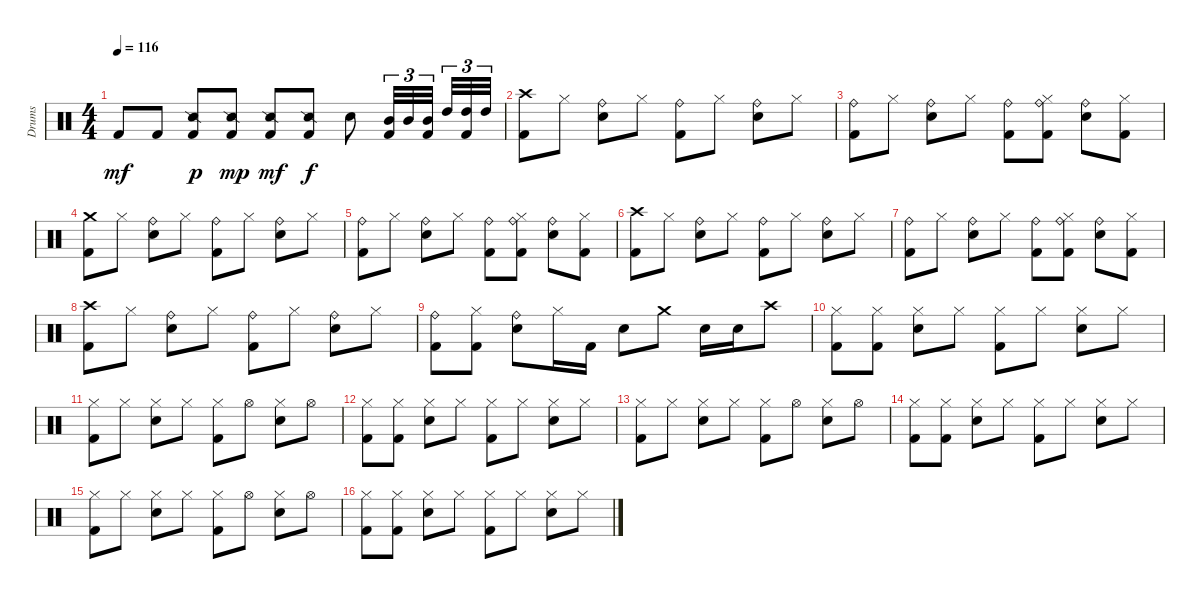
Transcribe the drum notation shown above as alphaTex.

\track ("Drums" "Drums") {instrument percussion}
\staff {score}
\articulation defaults
\ts (4 4)
\tempo 116
\clef neutral
\ks c "Kick (hit) 2".8{dy mf} "Kick (hit) 2".8
("Kick (hit) 2" "Snare (side stick) 2").8{dy p} ("Kick (hit) 2" "Snare (side stick) 2").8{dy mp} ("Kick (hit) 2" "Snare (side stick) 2").8{dy mf} ("Kick (hit) 2" "Snare (side stick) 2").8{dy f} "Snare (hit) 2".8 ("Kick (hit) 2" "Mid Tom (hit)").32{tu (3 2)} "Mid Tom (hit)".32{tu (3 2)} ("Kick (hit) 2" "Mid Tom (hit)").32{tu (3 2)} "High Tom (hit)".32{tu (3 2)} ("Kick (hit) 2" "High Tom (hit)").32{tu (3 2)} "High Tom (hit)".32{tu (3 2)} |
("Kick (hit) 2" "Crash high (hit)").8 "Hi-Hat (closed)".8 ("Snare (hit) 2" "Ride (bell)").8 "Hi-Hat (closed)".8 ("Kick (hit) 2" "Ride (bell)").8 "Hi-Hat (closed)".8 ("Snare (hit) 2" "Ride (bell)").8 "Hi-Hat (closed)".8 |
("Kick (hit) 2" "Ride (bell)").8 "Hi-Hat (closed)".8 ("Snare (hit) 2" "Ride (bell)").8 "Hi-Hat (closed)".8 ("Kick (hit) 2" "Ride (bell)").8 ("Kick (hit) 2" "Hi-Hat (closed)" "Ride (bell)").8 ("Snare (hit) 2" "Ride (bell)").8 ("Kick (hit) 2" "Hi-Hat (closed)").8 |
("Kick (hit) 2" "Crash medium (hit)").8 "Hi-Hat (closed)".8 ("Snare (hit) 2" "Ride (bell)").8 "Hi-Hat (closed)".8 ("Kick (hit) 2" "Ride (bell)").8 "Hi-Hat (closed)".8 ("Snare (hit) 2" "Ride (bell)").8 "Hi-Hat (closed)".8 |
("Kick (hit) 2" "Ride (bell)").8 "Hi-Hat (closed)".8 ("Snare (hit) 2" "Ride (bell)").8 "Hi-Hat (closed)".8 ("Kick (hit) 2" "Ride (bell)").8 ("Kick (hit) 2" "Hi-Hat (closed)" "Ride (bell)").8 ("Snare (hit) 2" "Ride (bell)").8 ("Kick (hit) 2" "Hi-Hat (closed)").8 |
("Kick (hit) 2" "Crash high (hit)").8 "Hi-Hat (closed)".8 ("Snare (hit) 2" "Ride (bell)").8 "Hi-Hat (closed)".8 ("Kick (hit) 2" "Ride (bell)").8 "Hi-Hat (closed)".8 ("Snare (hit) 2" "Ride (bell)").8 "Hi-Hat (closed)".8 |
("Kick (hit) 2" "Ride (bell)").8 "Hi-Hat (closed)".8 ("Snare (hit) 2" "Ride (bell)").8 "Hi-Hat (closed)".8 ("Kick (hit) 2" "Ride (bell)").8 ("Kick (hit) 2" "Hi-Hat (closed)" "Ride (bell)").8 ("Snare (hit) 2" "Ride (bell)").8 ("Kick (hit) 2" "Hi-Hat (closed)").8 |
("Kick (hit) 2" "Crash high (hit)").8 "Hi-Hat (closed)".8 ("Snare (hit) 2" "Ride (bell)").8 "Hi-Hat (closed)".8 ("Kick (hit) 2" "Ride (bell)").8 "Hi-Hat (closed)".8 ("Snare (hit) 2" "Ride (bell)").8 "Hi-Hat (closed)".8 |
("Kick (hit) 2" "Ride (bell)").8 ("Kick (hit) 2" "Hi-Hat (closed)").8 ("Snare (hit) 2" "Ride (bell)").8 "Hi-Hat (closed)".16 "Kick (hit) 2".16 "Snare (hit) 2".8 "Crash medium (hit)".8 "Snare (hit) 2".16 "Snare (hit) 2".16 "Crash high (hit)".8 |
("Kick (hit) 2" "Hi-Hat (closed)").8 ("Kick (hit) 2" "Hi-Hat (closed)").8 ("Snare (hit) 2" "Hi-Hat (closed)").8 "Hi-Hat (closed)".8 ("Kick (hit) 2" "Hi-Hat (closed)").8 "Hi-Hat (closed)".8 ("Snare (hit) 2" "Hi-Hat (closed)").8 "Hi-Hat (closed)".8 |
("Kick (hit) 2" "Hi-Hat (closed)").8 "Hi-Hat (closed)".8 ("Snare (hit) 2" "Hi-Hat (closed)").8 "Hi-Hat (closed)".8 ("Kick (hit) 2" "Hi-Hat (closed)").8 "Hi-Hat (open)".8 ("Snare (hit) 2" "Hi-Hat (closed)").8 "Hi-Hat (open)".8 |
("Kick (hit) 2" "Hi-Hat (closed)").8 ("Kick (hit) 2" "Hi-Hat (closed)").8 ("Snare (hit) 2" "Hi-Hat (closed)").8 "Hi-Hat (closed)".8 ("Kick (hit) 2" "Hi-Hat (closed)").8 "Hi-Hat (closed)".8 ("Snare (hit) 2" "Hi-Hat (closed)").8 "Hi-Hat (closed)".8 |
("Kick (hit) 2" "Hi-Hat (closed)").8 "Hi-Hat (closed)".8 ("Snare (hit) 2" "Hi-Hat (closed)").8 "Hi-Hat (closed)".8 ("Kick (hit) 2" "Hi-Hat (closed)").8 "Hi-Hat (open)".8 ("Snare (hit) 2" "Hi-Hat (closed)").8 "Hi-Hat (open)".8 |
("Kick (hit) 2" "Hi-Hat (closed)").8 ("Kick (hit) 2" "Hi-Hat (closed)").8 ("Snare (hit) 2" "Hi-Hat (closed)").8 "Hi-Hat (closed)".8 ("Kick (hit) 2" "Hi-Hat (closed)").8 "Hi-Hat (closed)".8 ("Snare (hit) 2" "Hi-Hat (closed)").8 "Hi-Hat (closed)".8 |
("Kick (hit) 2" "Hi-Hat (closed)").8 "Hi-Hat (closed)".8 ("Snare (hit) 2" "Hi-Hat (closed)").8 "Hi-Hat (closed)".8 ("Kick (hit) 2" "Hi-Hat (closed)").8 "Hi-Hat (open)".8 ("Snare (hit) 2" "Hi-Hat (closed)").8 "Hi-Hat (open)".8 |
("Kick (hit) 2" "Hi-Hat (closed)").8 ("Kick (hit) 2" "Hi-Hat (closed)").8 ("Snare (hit) 2" "Hi-Hat (closed)").8 "Hi-Hat (closed)".8 ("Kick (hit) 2" "Hi-Hat (closed)").8 "Hi-Hat (closed)".8 ("Snare (hit) 2" "Hi-Hat (closed)").8 "Hi-Hat (closed)".8
